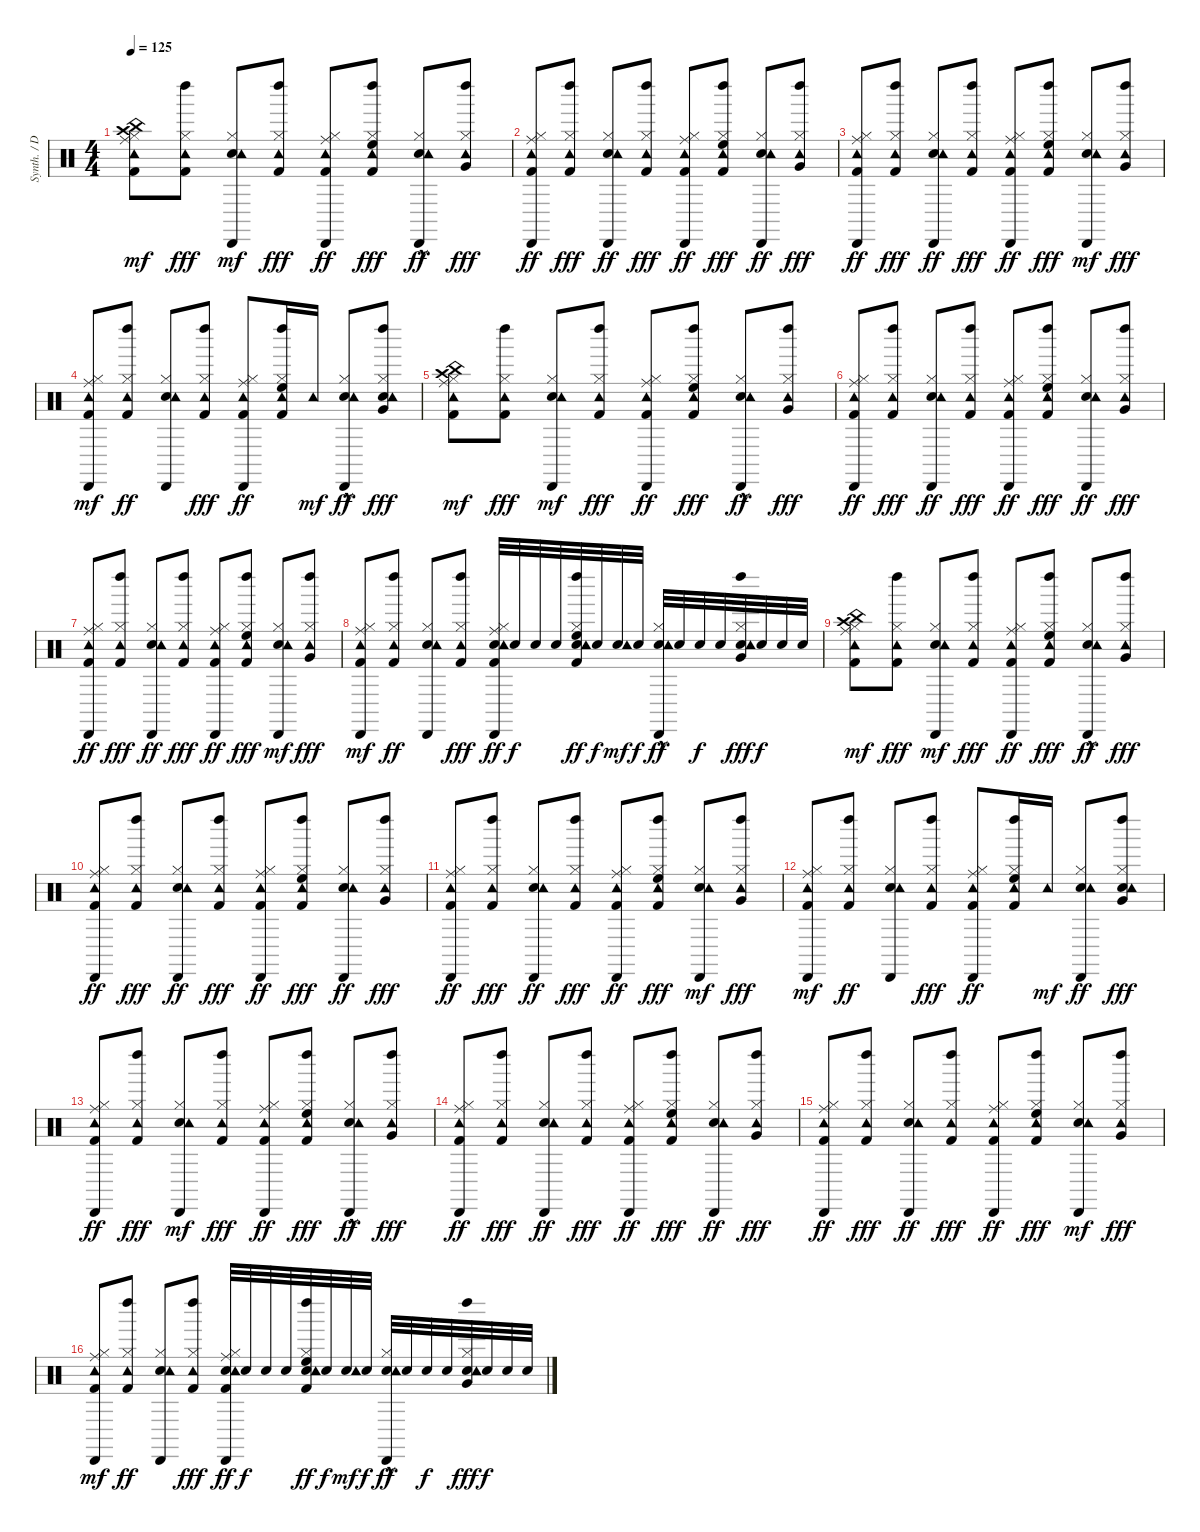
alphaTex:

\track ("Synth. / Drums" "Synth. / D") {instrument percussion}
\staff {score}
\articulation defaults
\ts (4 4)
\tempo 125
\clef neutral
\ks c
("Kick (hit) 2" "Hi-Hat (closed)" "Crash high (hit)" "Ride (middle)" "China (hit)" "Tambourine (hit)").8{dy mf} ("Kick (hit) 2" "Hi-Hat (closed)" "Tambourine (hit)" "Left Maraca (hit)").8{dy fff} ("Electric Snare (hit)" "Hi-Hat (closed)" "Tambourine (hit)" "Cabasa (hit)").8{dy mf} ("Kick (hit) 2" "Hi-Hat (closed)" "Tambourine (hit)" "Left Maraca (hit)").8{dy fff} ("Kick (hit) 2" "Hi-Hat (closed)" "Ride (middle)" "Tambourine (hit)" "Cabasa (hit)").8{dy ff} ("Kick (hit) 2" "Hi-Hat (closed)" "High Floor Tom (hit)" "Tambourine (hit)" "Left Maraca (hit)").8{dy fff} ("Electric Snare (hit)"{hac} "Hi-Hat (closed)" "Tambourine (hit)" "Cabasa (hit)").8{dy ff} ("Hi-Hat (closed)" "Very Low Tom (hit)" "Tambourine (hit)" "Left Maraca (hit)").8{dy fff} |
("Kick (hit) 2" "Hi-Hat (closed)" "Ride (middle)" "Tambourine (hit)" "Cabasa (hit)").8{dy ff} ("Kick (hit) 2" "Hi-Hat (closed)" "Tambourine (hit)" "Left Maraca (hit)").8{dy fff} ("Electric Snare (hit)" "Hi-Hat (closed)" "Tambourine (hit)" "Cabasa (hit)").8{dy ff} ("Kick (hit) 2" "Hi-Hat (closed)" "Tambourine (hit)" "Left Maraca (hit)").8{dy fff} ("Kick (hit) 2" "Hi-Hat (closed)" "Ride (middle)" "Tambourine (hit)" "Cabasa (hit)").8{dy ff} ("Kick (hit) 2" "Hi-Hat (closed)" "High Floor Tom (hit)" "Tambourine (hit)" "Left Maraca (hit)").8{dy fff} ("Electric Snare (hit)" "Hi-Hat (closed)" "Tambourine (hit)" "Cabasa (hit)").8{dy ff} ("Hi-Hat (closed)" "Very Low Tom (hit)" "Tambourine (hit)" "Left Maraca (hit)").8{dy fff} |
("Kick (hit) 2" "Hi-Hat (closed)" "Ride (middle)" "Tambourine (hit)" "Cabasa (hit)").8{dy ff} ("Kick (hit) 2" "Hi-Hat (closed)" "Tambourine (hit)" "Left Maraca (hit)").8{dy fff} ("Electric Snare (hit)" "Hi-Hat (closed)" "Tambourine (hit)" "Cabasa (hit)").8{dy ff} ("Kick (hit) 2" "Hi-Hat (closed)" "Tambourine (hit)" "Left Maraca (hit)").8{dy fff} ("Kick (hit) 2" "Hi-Hat (closed)" "Ride (middle)" "Tambourine (hit)" "Cabasa (hit)").8{dy ff} ("Kick (hit) 2" "Hi-Hat (closed)" "High Floor Tom (hit)" "Tambourine (hit)" "Left Maraca (hit)").8{dy fff} ("Electric Snare (hit)" "Hi-Hat (closed)" "Tambourine (hit)" "Cabasa (hit)").8{dy mf} ("Hi-Hat (closed)" "Very Low Tom (hit)" "Tambourine (hit)" "Left Maraca (hit)").8{dy fff} |
("Kick (hit) 2" "Hi-Hat (closed)" "Ride (middle)" "Tambourine (hit)" "Cabasa (hit)").8{dy mf} ("Kick (hit) 2" "Hi-Hat (closed)" "Tambourine (hit)" "Left Maraca (hit)").8{dy ff} ("Electric Snare (hit)" "Hi-Hat (closed)" "Tambourine (hit)" "Cabasa (hit)").8 ("Kick (hit) 2" "Hi-Hat (closed)" "Tambourine (hit)" "Left Maraca (hit)").8{dy fff} ("Kick (hit) 2" "Hi-Hat (closed)" "Ride (middle)" "Tambourine (hit)" "Cabasa (hit)").8{dy ff} ("Kick (hit) 2" "Hi-Hat (closed)" "High Floor Tom (hit)" "Tambourine (hit)" "Left Maraca (hit)").16 "Tambourine (hit)".16{dy mf} ("Electric Snare (hit)" "Hi-Hat (closed)" "Tambourine (hit)" "Cabasa (hit)"{hac}).8{dy ff} ("Electric Snare (hit)" "Hi-Hat (closed)" "Very Low Tom (hit)" "Tambourine (hit)" "Left Maraca (hit)").8{dy fff} |
("Kick (hit) 2" "Hi-Hat (closed)" "Crash high (hit)" "Ride (middle)" "China (hit)" "Tambourine (hit)").8{dy mf} ("Kick (hit) 2" "Hi-Hat (closed)" "Tambourine (hit)" "Left Maraca (hit)").8{dy fff} ("Electric Snare (hit)" "Hi-Hat (closed)" "Tambourine (hit)" "Cabasa (hit)").8{dy mf} ("Kick (hit) 2" "Hi-Hat (closed)" "Tambourine (hit)" "Left Maraca (hit)").8{dy fff} ("Kick (hit) 2" "Hi-Hat (closed)" "Ride (middle)" "Tambourine (hit)" "Cabasa (hit)").8{dy ff} ("Kick (hit) 2" "Hi-Hat (closed)" "High Floor Tom (hit)" "Tambourine (hit)" "Left Maraca (hit)").8{dy fff} ("Electric Snare (hit)"{hac} "Hi-Hat (closed)" "Tambourine (hit)" "Cabasa (hit)").8{dy ff} ("Hi-Hat (closed)" "Very Low Tom (hit)" "Tambourine (hit)" "Left Maraca (hit)").8{dy fff} |
("Kick (hit) 2" "Hi-Hat (closed)" "Ride (middle)" "Tambourine (hit)" "Cabasa (hit)").8{dy ff} ("Kick (hit) 2" "Hi-Hat (closed)" "Tambourine (hit)" "Left Maraca (hit)").8{dy fff} ("Electric Snare (hit)" "Hi-Hat (closed)" "Tambourine (hit)" "Cabasa (hit)").8{dy ff} ("Kick (hit) 2" "Hi-Hat (closed)" "Tambourine (hit)" "Left Maraca (hit)").8{dy fff} ("Kick (hit) 2" "Hi-Hat (closed)" "Ride (middle)" "Tambourine (hit)" "Cabasa (hit)").8{dy ff} ("Kick (hit) 2" "Hi-Hat (closed)" "High Floor Tom (hit)" "Tambourine (hit)" "Left Maraca (hit)").8{dy fff} ("Electric Snare (hit)" "Hi-Hat (closed)" "Tambourine (hit)" "Cabasa (hit)").8{dy ff} ("Hi-Hat (closed)" "Very Low Tom (hit)" "Tambourine (hit)" "Left Maraca (hit)").8{dy fff} |
("Kick (hit) 2" "Hi-Hat (closed)" "Ride (middle)" "Tambourine (hit)" "Cabasa (hit)").8{dy ff} ("Kick (hit) 2" "Hi-Hat (closed)" "Tambourine (hit)" "Left Maraca (hit)").8{dy fff} ("Electric Snare (hit)" "Hi-Hat (closed)" "Tambourine (hit)" "Cabasa (hit)").8{dy ff} ("Kick (hit) 2" "Hi-Hat (closed)" "Tambourine (hit)" "Left Maraca (hit)").8{dy fff} ("Kick (hit) 2" "Hi-Hat (closed)" "Ride (middle)" "Tambourine (hit)" "Cabasa (hit)").8{dy ff} ("Kick (hit) 2" "Hi-Hat (closed)" "High Floor Tom (hit)" "Tambourine (hit)" "Left Maraca (hit)").8{dy fff} ("Electric Snare (hit)" "Hi-Hat (closed)" "Tambourine (hit)" "Cabasa (hit)").8{dy mf} ("Hi-Hat (closed)" "Very Low Tom (hit)" "Tambourine (hit)" "Left Maraca (hit)").8{dy fff} |
("Kick (hit) 2" "Hi-Hat (closed)" "Ride (middle)" "Tambourine (hit)" "Cabasa (hit)").8{dy mf} ("Kick (hit) 2" "Hi-Hat (closed)" "Tambourine (hit)" "Left Maraca (hit)").8{dy ff} ("Electric Snare (hit)" "Hi-Hat (closed)" "Tambourine (hit)" "Cabasa (hit)").8 ("Kick (hit) 2" "Hi-Hat (closed)" "Tambourine (hit)" "Left Maraca (hit)").8{dy fff} ("Kick (hit) 2" "Electric Snare (hit)" "Hi-Hat (closed)" "Ride (middle)" "Tambourine (hit)" "Cabasa (hit)").32{dy ff} "Electric Snare (hit)".32{dy f} "Electric Snare (hit)".32 "Electric Snare (hit)".32 ("Kick (hit) 2" "Electric Snare (hit)" "Hi-Hat (closed)" "High Floor Tom (hit)" "Tambourine (hit)" "Left Maraca (hit)").32{dy ff} "Electric Snare (hit)".32{dy f} ("Electric Snare (hit)" "Tambourine (hit)").32{dy mf} "Electric Snare (hit)".32{dy f} ("Electric Snare (hit)" "Hi-Hat (closed)" "Tambourine (hit)" "Cabasa (hit)"{hac}).32{dy ff} "Electric Snare (hit)".32 "Electric Snare (hit)".32{dy f} "Electric Snare (hit)".32 ("Electric Snare (hit)" "Hi-Hat (closed)" "Very Low Tom (hit)" "Tambourine (hit)" "Left Maraca (hit)").32{dy fff} "Electric Snare (hit)".32{dy f} "Electric Snare (hit)".32 "Electric Snare (hit)".32 |
("Kick (hit) 2" "Hi-Hat (closed)" "Crash high (hit)" "Ride (middle)" "China (hit)" "Tambourine (hit)").8{dy mf} ("Kick (hit) 2" "Hi-Hat (closed)" "Tambourine (hit)" "Left Maraca (hit)").8{dy fff} ("Electric Snare (hit)" "Hi-Hat (closed)" "Tambourine (hit)" "Cabasa (hit)").8{dy mf} ("Kick (hit) 2" "Hi-Hat (closed)" "Tambourine (hit)" "Left Maraca (hit)").8{dy fff} ("Kick (hit) 2" "Hi-Hat (closed)" "Ride (middle)" "Tambourine (hit)" "Cabasa (hit)").8{dy ff} ("Kick (hit) 2" "Hi-Hat (closed)" "High Floor Tom (hit)" "Tambourine (hit)" "Left Maraca (hit)").8{dy fff} ("Electric Snare (hit)"{hac} "Hi-Hat (closed)" "Tambourine (hit)" "Cabasa (hit)").8{dy ff} ("Hi-Hat (closed)" "Very Low Tom (hit)" "Tambourine (hit)" "Left Maraca (hit)").8{dy fff} |
("Kick (hit) 2" "Hi-Hat (closed)" "Ride (middle)" "Tambourine (hit)" "Cabasa (hit)").8{dy ff} ("Kick (hit) 2" "Hi-Hat (closed)" "Tambourine (hit)" "Left Maraca (hit)").8{dy fff} ("Electric Snare (hit)" "Hi-Hat (closed)" "Tambourine (hit)" "Cabasa (hit)").8{dy ff} ("Kick (hit) 2" "Hi-Hat (closed)" "Tambourine (hit)" "Left Maraca (hit)").8{dy fff} ("Kick (hit) 2" "Hi-Hat (closed)" "Ride (middle)" "Tambourine (hit)" "Cabasa (hit)").8{dy ff} ("Kick (hit) 2" "Hi-Hat (closed)" "High Floor Tom (hit)" "Tambourine (hit)" "Left Maraca (hit)").8{dy fff} ("Electric Snare (hit)" "Hi-Hat (closed)" "Tambourine (hit)" "Cabasa (hit)").8{dy ff} ("Hi-Hat (closed)" "Very Low Tom (hit)" "Tambourine (hit)" "Left Maraca (hit)").8{dy fff} |
("Kick (hit) 2" "Hi-Hat (closed)" "Ride (middle)" "Tambourine (hit)" "Cabasa (hit)").8{dy ff} ("Kick (hit) 2" "Hi-Hat (closed)" "Tambourine (hit)" "Left Maraca (hit)").8{dy fff} ("Electric Snare (hit)" "Hi-Hat (closed)" "Tambourine (hit)" "Cabasa (hit)").8{dy ff} ("Kick (hit) 2" "Hi-Hat (closed)" "Tambourine (hit)" "Left Maraca (hit)").8{dy fff} ("Kick (hit) 2" "Hi-Hat (closed)" "Ride (middle)" "Tambourine (hit)" "Cabasa (hit)").8{dy ff} ("Kick (hit) 2" "Hi-Hat (closed)" "High Floor Tom (hit)" "Tambourine (hit)" "Left Maraca (hit)").8{dy fff} ("Electric Snare (hit)" "Hi-Hat (closed)" "Tambourine (hit)" "Cabasa (hit)").8{dy mf} ("Hi-Hat (closed)" "Very Low Tom (hit)" "Tambourine (hit)" "Left Maraca (hit)").8{dy fff} |
("Kick (hit) 2" "Hi-Hat (closed)" "Ride (middle)" "Tambourine (hit)" "Cabasa (hit)").8{dy mf} ("Kick (hit) 2" "Hi-Hat (closed)" "Tambourine (hit)" "Left Maraca (hit)").8{dy ff} ("Electric Snare (hit)" "Hi-Hat (closed)" "Tambourine (hit)" "Cabasa (hit)").8 ("Kick (hit) 2" "Hi-Hat (closed)" "Tambourine (hit)" "Left Maraca (hit)").8{dy fff} ("Kick (hit) 2" "Hi-Hat (closed)" "Ride (middle)" "Tambourine (hit)" "Cabasa (hit)").8{dy ff} ("Kick (hit) 2" "Hi-Hat (closed)" "High Floor Tom (hit)" "Tambourine (hit)" "Left Maraca (hit)").16 "Tambourine (hit)".16{dy mf} ("Electric Snare (hit)" "Hi-Hat (closed)" "Tambourine (hit)" "Cabasa (hit)").8{dy ff} ("Electric Snare (hit)" "Hi-Hat (closed)" "Very Low Tom (hit)" "Tambourine (hit)" "Left Maraca (hit)").8{dy fff} |
("Kick (hit) 2" "Hi-Hat (closed)" "Ride (middle)" "Tambourine (hit)" "Cabasa (hit)").8{dy ff} ("Kick (hit) 2" "Hi-Hat (closed)" "Tambourine (hit)" "Left Maraca (hit)").8{dy fff} ("Electric Snare (hit)" "Hi-Hat (closed)" "Tambourine (hit)" "Cabasa (hit)").8{dy mf} ("Kick (hit) 2" "Hi-Hat (closed)" "Tambourine (hit)" "Left Maraca (hit)").8{dy fff} ("Kick (hit) 2" "Hi-Hat (closed)" "Ride (middle)" "Tambourine (hit)" "Cabasa (hit)").8{dy ff} ("Kick (hit) 2" "Hi-Hat (closed)" "High Floor Tom (hit)" "Tambourine (hit)" "Left Maraca (hit)").8{dy fff} ("Electric Snare (hit)"{hac} "Hi-Hat (closed)" "Tambourine (hit)" "Cabasa (hit)").8{dy ff} ("Hi-Hat (closed)" "Very Low Tom (hit)" "Tambourine (hit)" "Left Maraca (hit)").8{dy fff} |
("Kick (hit) 2" "Hi-Hat (closed)" "Ride (middle)" "Tambourine (hit)" "Cabasa (hit)").8{dy ff} ("Kick (hit) 2" "Hi-Hat (closed)" "Tambourine (hit)" "Left Maraca (hit)").8{dy fff} ("Electric Snare (hit)" "Hi-Hat (closed)" "Tambourine (hit)" "Cabasa (hit)").8{dy ff} ("Kick (hit) 2" "Hi-Hat (closed)" "Tambourine (hit)" "Left Maraca (hit)").8{dy fff} ("Kick (hit) 2" "Hi-Hat (closed)" "Ride (middle)" "Tambourine (hit)" "Cabasa (hit)").8{dy ff} ("Kick (hit) 2" "Hi-Hat (closed)" "High Floor Tom (hit)" "Tambourine (hit)" "Left Maraca (hit)").8{dy fff} ("Electric Snare (hit)" "Hi-Hat (closed)" "Tambourine (hit)" "Cabasa (hit)").8{dy ff} ("Hi-Hat (closed)" "Very Low Tom (hit)" "Tambourine (hit)" "Left Maraca (hit)").8{dy fff} |
("Kick (hit) 2" "Hi-Hat (closed)" "Ride (middle)" "Tambourine (hit)" "Cabasa (hit)").8{dy ff} ("Kick (hit) 2" "Hi-Hat (closed)" "Tambourine (hit)" "Left Maraca (hit)").8{dy fff} ("Electric Snare (hit)" "Hi-Hat (closed)" "Tambourine (hit)" "Cabasa (hit)").8{dy ff} ("Kick (hit) 2" "Hi-Hat (closed)" "Tambourine (hit)" "Left Maraca (hit)").8{dy fff} ("Kick (hit) 2" "Hi-Hat (closed)" "Ride (middle)" "Tambourine (hit)" "Cabasa (hit)").8{dy ff} ("Kick (hit) 2" "Hi-Hat (closed)" "High Floor Tom (hit)" "Tambourine (hit)" "Left Maraca (hit)").8{dy fff} ("Electric Snare (hit)" "Hi-Hat (closed)" "Tambourine (hit)" "Cabasa (hit)").8{dy mf} ("Hi-Hat (closed)" "Very Low Tom (hit)" "Tambourine (hit)" "Left Maraca (hit)").8{dy fff} |
("Kick (hit) 2" "Hi-Hat (closed)" "Ride (middle)" "Tambourine (hit)" "Cabasa (hit)").8{dy mf} ("Kick (hit) 2" "Hi-Hat (closed)" "Tambourine (hit)" "Left Maraca (hit)").8{dy ff} ("Electric Snare (hit)" "Hi-Hat (closed)" "Tambourine (hit)" "Cabasa (hit)").8 ("Kick (hit) 2" "Hi-Hat (closed)" "Tambourine (hit)" "Left Maraca (hit)").8{dy fff} ("Kick (hit) 2" "Electric Snare (hit)" "Hi-Hat (closed)" "Ride (middle)" "Tambourine (hit)" "Cabasa (hit)").32{dy ff} "Electric Snare (hit)".32{dy f} "Electric Snare (hit)".32 "Electric Snare (hit)".32 ("Kick (hit) 2" "Electric Snare (hit)" "Hi-Hat (closed)" "High Floor Tom (hit)" "Tambourine (hit)" "Left Maraca (hit)").32{dy ff} "Electric Snare (hit)".32{dy f} ("Electric Snare (hit)" "Tambourine (hit)").32{dy mf} "Electric Snare (hit)".32{dy f} ("Electric Snare (hit)" "Hi-Hat (closed)" "Tambourine (hit)" "Cabasa (hit)"{hac}).32{dy ff} "Electric Snare (hit)".32 "Electric Snare (hit)".32{dy f} "Electric Snare (hit)".32 ("Electric Snare (hit)" "Hi-Hat (closed)" "Very Low Tom (hit)" "Tambourine (hit)" "Left Maraca (hit)").32{dy fff} "Electric Snare (hit)".32{dy f} "Electric Snare (hit)".32 "Electric Snare (hit)".32
